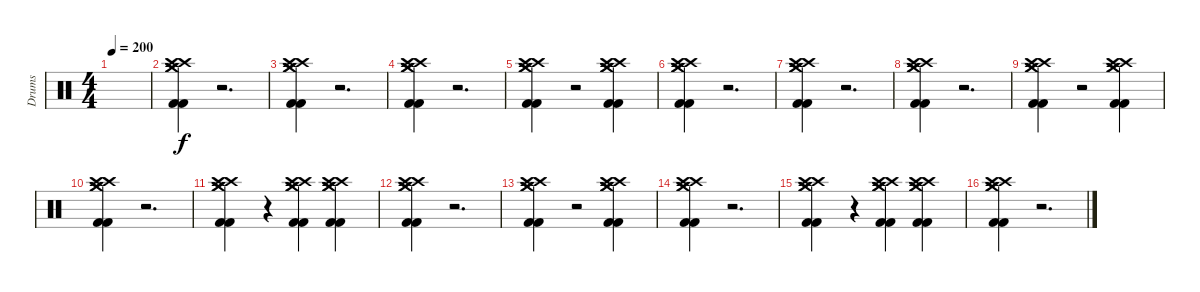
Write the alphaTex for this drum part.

\track ("Drums" "Drums") {instrument percussion}
\staff {score}
\articulation defaults
\ts (4 4)
\tempo 200
\clef neutral
\ks c
|
("Crash high (hit)" "Crash high (hit)" "Crash medium (hit)" "Crash medium (hit)" "Kick (hit) 2" "Kick (hit) 2").4{volume 13} r.2{d volume 0} |
("Crash high (hit)" "Crash high (hit)" "Crash medium (hit)" "Crash medium (hit)" "Kick (hit) 2" "Kick (hit) 2").4{volume 13} r.2{d volume 0} |
("Crash high (hit)" "Crash high (hit)" "Crash medium (hit)" "Crash medium (hit)" "Kick (hit) 2" "Kick (hit) 2").4{volume 13} r.2{d volume 0} |
("Crash high (hit)" "Crash high (hit)" "Crash medium (hit)" "Crash medium (hit)" "Kick (hit) 2" "Kick (hit) 2").4{volume 13} r.2{volume 0} ("Crash high (hit)" "Crash high (hit)" "Crash medium (hit)" "Crash medium (hit)" "Kick (hit) 2" "Kick (hit) 2").4{volume 13} |
("Crash high (hit)" "Crash high (hit)" "Crash medium (hit)" "Crash medium (hit)" "Kick (hit) 2" "Kick (hit) 2").4{volume 13} r.2{d volume 0} |
("Crash high (hit)" "Crash high (hit)" "Crash medium (hit)" "Crash medium (hit)" "Kick (hit) 2" "Kick (hit) 2").4{volume 13} r.2{d volume 0} |
("Crash high (hit)" "Crash high (hit)" "Crash medium (hit)" "Crash medium (hit)" "Kick (hit) 2" "Kick (hit) 2").4{volume 13} r.2{d volume 0} |
("Crash high (hit)" "Crash high (hit)" "Crash medium (hit)" "Crash medium (hit)" "Kick (hit) 2" "Kick (hit) 2").4{volume 13} r.2{volume 0} ("Crash high (hit)" "Crash high (hit)" "Crash medium (hit)" "Crash medium (hit)" "Kick (hit) 2" "Kick (hit) 2").4{volume 13} |
("Crash high (hit)" "Crash high (hit)" "Crash medium (hit)" "Crash medium (hit)" "Kick (hit) 2" "Kick (hit) 2").4{volume 13} r.2{d volume 0} |
("Crash high (hit)" "Crash high (hit)" "Crash medium (hit)" "Crash medium (hit)" "Kick (hit) 2" "Kick (hit) 2").4{volume 13} r.4{volume 0} ("Crash high (hit)" "Crash high (hit)" "Crash medium (hit)" "Crash medium (hit)" "Kick (hit) 2" "Kick (hit) 2").4{volume 13} ("Crash high (hit)" "Crash high (hit)" "Crash medium (hit)" "Crash medium (hit)" "Kick (hit) 2" "Kick (hit) 2").4{volume 13} |
("Crash high (hit)" "Crash high (hit)" "Crash medium (hit)" "Crash medium (hit)" "Kick (hit) 2" "Kick (hit) 2").4{volume 13} r.2{d volume 0} |
("Crash high (hit)" "Crash high (hit)" "Crash medium (hit)" "Crash medium (hit)" "Kick (hit) 2" "Kick (hit) 2").4{volume 13} r.2{volume 0} ("Crash high (hit)" "Crash high (hit)" "Crash medium (hit)" "Crash medium (hit)" "Kick (hit) 2" "Kick (hit) 2").4{volume 13} |
("Crash high (hit)" "Crash high (hit)" "Crash medium (hit)" "Crash medium (hit)" "Kick (hit) 2" "Kick (hit) 2").4{volume 13} r.2{d volume 0} |
("Crash high (hit)" "Crash high (hit)" "Crash medium (hit)" "Crash medium (hit)" "Kick (hit) 2" "Kick (hit) 2").4{volume 13} r.4{volume 0} ("Crash high (hit)" "Crash high (hit)" "Crash medium (hit)" "Crash medium (hit)" "Kick (hit) 2" "Kick (hit) 2").4{volume 13} ("Crash high (hit)" "Crash high (hit)" "Crash medium (hit)" "Crash medium (hit)" "Kick (hit) 2" "Kick (hit) 2").4{volume 13} |
("Crash high (hit)" "Crash high (hit)" "Crash medium (hit)" "Crash medium (hit)" "Kick (hit) 2" "Kick (hit) 2").4{volume 13} r.2{d volume 0}
